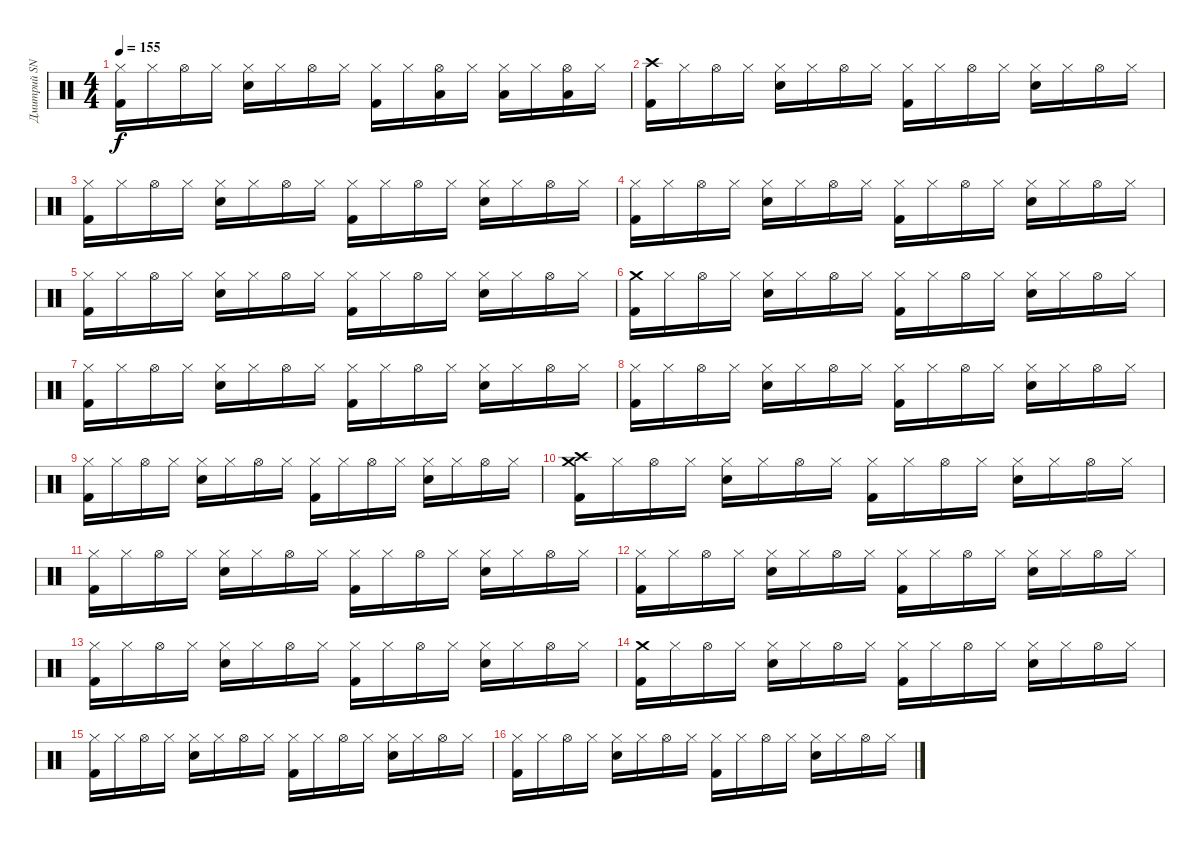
\track ("Дмитрий SNAKE Хакимов" "Дмитрий SN") {instrument percussion}
\staff {score}
\articulation defaults
\ts (4 4)
\tempo 155
\clef neutral
\ks c
("Hi-Hat (closed)" "Kick (hit) 2").16{dy f} "Hi-Hat (closed)".16 "Hi-Hat (open)".16 "Hi-Hat (closed)".16 ("Hi-Hat (closed)" "Snare (hit) 2").16 "Hi-Hat (closed)".16 "Hi-Hat (open)".16 "Hi-Hat (closed)".16 ("Hi-Hat (closed)" "Kick (hit) 2").16 "Hi-Hat (closed)".16 ("Hi-Hat (open)" "Low Tom (hit)").16 "Hi-Hat (closed)".16 ("Hi-Hat (closed)" "Low Tom (hit)").16 "Hi-Hat (closed)".16 ("Hi-Hat (open)" "Low Tom (hit)").16 "Hi-Hat (closed)".16 |
("Crash high (hit)" "Kick (hit) 2").16 "Hi-Hat (closed)".16 "Hi-Hat (open)".16 "Hi-Hat (closed)".16 ("Hi-Hat (closed)" "Snare (hit) 2").16 "Hi-Hat (closed)".16 "Hi-Hat (open)".16 "Hi-Hat (closed)".16 ("Hi-Hat (closed)" "Kick (hit) 2").16 "Hi-Hat (closed)".16 "Hi-Hat (open)".16 "Hi-Hat (closed)".16 ("Hi-Hat (closed)" "Snare (hit) 2").16 "Hi-Hat (closed)".16 "Hi-Hat (open)".16 "Hi-Hat (closed)".16 |
("Hi-Hat (closed)" "Kick (hit) 2").16 "Hi-Hat (closed)".16 "Hi-Hat (open)".16 "Hi-Hat (closed)".16 ("Hi-Hat (closed)" "Snare (hit) 2").16 "Hi-Hat (closed)".16 "Hi-Hat (open)".16 "Hi-Hat (closed)".16 ("Hi-Hat (closed)" "Kick (hit) 2").16 "Hi-Hat (closed)".16 "Hi-Hat (open)".16 "Hi-Hat (closed)".16 ("Hi-Hat (closed)" "Snare (hit) 2").16 "Hi-Hat (closed)".16 "Hi-Hat (open)".16 "Hi-Hat (closed)".16 |
("Hi-Hat (closed)" "Kick (hit) 2").16 "Hi-Hat (closed)".16 "Hi-Hat (open)".16 "Hi-Hat (closed)".16 ("Hi-Hat (closed)" "Snare (hit) 2").16 "Hi-Hat (closed)".16 "Hi-Hat (open)".16 "Hi-Hat (closed)".16 ("Hi-Hat (closed)" "Kick (hit) 2").16 "Hi-Hat (closed)".16 "Hi-Hat (open)".16 "Hi-Hat (closed)".16 ("Hi-Hat (closed)" "Snare (hit) 2").16 "Hi-Hat (closed)".16 "Hi-Hat (open)".16 "Hi-Hat (closed)".16 |
("Hi-Hat (closed)" "Kick (hit) 2").16 "Hi-Hat (closed)".16 "Hi-Hat (open)".16 "Hi-Hat (closed)".16 ("Hi-Hat (closed)" "Snare (hit) 2").16 "Hi-Hat (closed)".16 "Hi-Hat (open)".16 "Hi-Hat (closed)".16 ("Hi-Hat (closed)" "Kick (hit) 2").16 "Hi-Hat (closed)".16 "Hi-Hat (open)".16 "Hi-Hat (closed)".16 ("Hi-Hat (closed)" "Snare (hit) 2").16 "Hi-Hat (closed)".16 "Hi-Hat (open)".16 "Hi-Hat (closed)".16 |
("Crash medium (hit)" "Kick (hit) 2").16 "Hi-Hat (closed)".16 "Hi-Hat (open)".16 "Hi-Hat (closed)".16 ("Hi-Hat (closed)" "Snare (hit) 2").16 "Hi-Hat (closed)".16 "Hi-Hat (open)".16 "Hi-Hat (closed)".16 ("Hi-Hat (closed)" "Kick (hit) 2").16 "Hi-Hat (closed)".16 "Hi-Hat (open)".16 "Hi-Hat (closed)".16 ("Hi-Hat (closed)" "Snare (hit) 2").16 "Hi-Hat (closed)".16 "Hi-Hat (open)".16 "Hi-Hat (closed)".16 |
("Hi-Hat (closed)" "Kick (hit) 2").16 "Hi-Hat (closed)".16 "Hi-Hat (open)".16 "Hi-Hat (closed)".16 ("Hi-Hat (closed)" "Snare (hit) 2").16 "Hi-Hat (closed)".16 "Hi-Hat (open)".16 "Hi-Hat (closed)".16 ("Hi-Hat (closed)" "Kick (hit) 2").16 "Hi-Hat (closed)".16 "Hi-Hat (open)".16 "Hi-Hat (closed)".16 ("Hi-Hat (closed)" "Snare (hit) 2").16 "Hi-Hat (closed)".16 "Hi-Hat (open)".16 "Hi-Hat (closed)".16 |
("Hi-Hat (closed)" "Kick (hit) 2").16 "Hi-Hat (closed)".16 "Hi-Hat (open)".16 "Hi-Hat (closed)".16 ("Hi-Hat (closed)" "Snare (hit) 2").16 "Hi-Hat (closed)".16 "Hi-Hat (open)".16 "Hi-Hat (closed)".16 ("Hi-Hat (closed)" "Kick (hit) 2").16 "Hi-Hat (closed)".16 "Hi-Hat (open)".16 "Hi-Hat (closed)".16 ("Hi-Hat (closed)" "Snare (hit) 2").16 "Hi-Hat (closed)".16 "Hi-Hat (open)".16 "Hi-Hat (closed)".16 |
("Hi-Hat (closed)" "Kick (hit) 2").16 "Hi-Hat (closed)".16 "Hi-Hat (open)".16 "Hi-Hat (closed)".16 ("Hi-Hat (closed)" "Snare (hit) 2").16 "Hi-Hat (closed)".16 "Hi-Hat (open)".16 "Hi-Hat (closed)".16 ("Hi-Hat (closed)" "Kick (hit) 2").16 "Hi-Hat (closed)".16 "Hi-Hat (open)".16 "Hi-Hat (closed)".16 ("Hi-Hat (closed)" "Snare (hit) 2").16 "Hi-Hat (closed)".16 "Hi-Hat (open)".16 "Hi-Hat (closed)".16 |
("Crash high (hit)" "Crash medium (hit)" "Kick (hit) 2").16 "Hi-Hat (closed)".16 "Hi-Hat (open)".16 "Hi-Hat (closed)".16 ("Hi-Hat (closed)" "Snare (hit) 2").16 "Hi-Hat (closed)".16 "Hi-Hat (open)".16 "Hi-Hat (closed)".16 ("Hi-Hat (closed)" "Kick (hit) 2").16 "Hi-Hat (closed)".16 "Hi-Hat (open)".16 "Hi-Hat (closed)".16 ("Hi-Hat (closed)" "Snare (hit) 2").16 "Hi-Hat (closed)".16 "Hi-Hat (open)".16 "Hi-Hat (closed)".16 |
("Hi-Hat (closed)" "Kick (hit) 2").16 "Hi-Hat (closed)".16 "Hi-Hat (open)".16 "Hi-Hat (closed)".16 ("Hi-Hat (closed)" "Snare (hit) 2").16 "Hi-Hat (closed)".16 "Hi-Hat (open)".16 "Hi-Hat (closed)".16 ("Hi-Hat (closed)" "Kick (hit) 2").16 "Hi-Hat (closed)".16 "Hi-Hat (open)".16 "Hi-Hat (closed)".16 ("Hi-Hat (closed)" "Snare (hit) 2").16 "Hi-Hat (closed)".16 "Hi-Hat (open)".16 "Hi-Hat (closed)".16 |
("Hi-Hat (closed)" "Kick (hit) 2").16 "Hi-Hat (closed)".16 "Hi-Hat (open)".16 "Hi-Hat (closed)".16 ("Hi-Hat (closed)" "Snare (hit) 2").16 "Hi-Hat (closed)".16 "Hi-Hat (open)".16 "Hi-Hat (closed)".16 ("Hi-Hat (closed)" "Kick (hit) 2").16 "Hi-Hat (closed)".16 "Hi-Hat (open)".16 "Hi-Hat (closed)".16 ("Hi-Hat (closed)" "Snare (hit) 2").16 "Hi-Hat (closed)".16 "Hi-Hat (open)".16 "Hi-Hat (closed)".16 |
("Hi-Hat (closed)" "Kick (hit) 2").16 "Hi-Hat (closed)".16 "Hi-Hat (open)".16 "Hi-Hat (closed)".16 ("Hi-Hat (closed)" "Snare (hit) 2").16 "Hi-Hat (closed)".16 "Hi-Hat (open)".16 "Hi-Hat (closed)".16 ("Hi-Hat (closed)" "Kick (hit) 2").16 "Hi-Hat (closed)".16 "Hi-Hat (open)".16 "Hi-Hat (closed)".16 ("Hi-Hat (closed)" "Snare (hit) 2").16 "Hi-Hat (closed)".16 "Hi-Hat (open)".16 "Hi-Hat (closed)".16 |
("Crash medium (hit)" "Kick (hit) 2").16 "Hi-Hat (closed)".16 "Hi-Hat (open)".16 "Hi-Hat (closed)".16 ("Hi-Hat (closed)" "Snare (hit) 2").16 "Hi-Hat (closed)".16 "Hi-Hat (open)".16 "Hi-Hat (closed)".16 ("Hi-Hat (closed)" "Kick (hit) 2").16 "Hi-Hat (closed)".16 "Hi-Hat (open)".16 "Hi-Hat (closed)".16 ("Hi-Hat (closed)" "Snare (hit) 2").16 "Hi-Hat (closed)".16 "Hi-Hat (open)".16 "Hi-Hat (closed)".16 |
("Hi-Hat (closed)" "Kick (hit) 2").16 "Hi-Hat (closed)".16 "Hi-Hat (open)".16 "Hi-Hat (closed)".16 ("Hi-Hat (closed)" "Snare (hit) 2").16 "Hi-Hat (closed)".16 "Hi-Hat (open)".16 "Hi-Hat (closed)".16 ("Hi-Hat (closed)" "Kick (hit) 2").16 "Hi-Hat (closed)".16 "Hi-Hat (open)".16 "Hi-Hat (closed)".16 ("Hi-Hat (closed)" "Snare (hit) 2").16 "Hi-Hat (closed)".16 "Hi-Hat (open)".16 "Hi-Hat (closed)".16 |
("Hi-Hat (closed)" "Kick (hit) 2").16 "Hi-Hat (closed)".16 "Hi-Hat (open)".16 "Hi-Hat (closed)".16 ("Hi-Hat (closed)" "Snare (hit) 2").16 "Hi-Hat (closed)".16 "Hi-Hat (open)".16 "Hi-Hat (closed)".16 ("Hi-Hat (closed)" "Kick (hit) 2").16 "Hi-Hat (closed)".16 "Hi-Hat (open)".16 "Hi-Hat (closed)".16 ("Hi-Hat (closed)" "Snare (hit) 2").16 "Hi-Hat (closed)".16 "Hi-Hat (open)".16 "Hi-Hat (closed)".16
